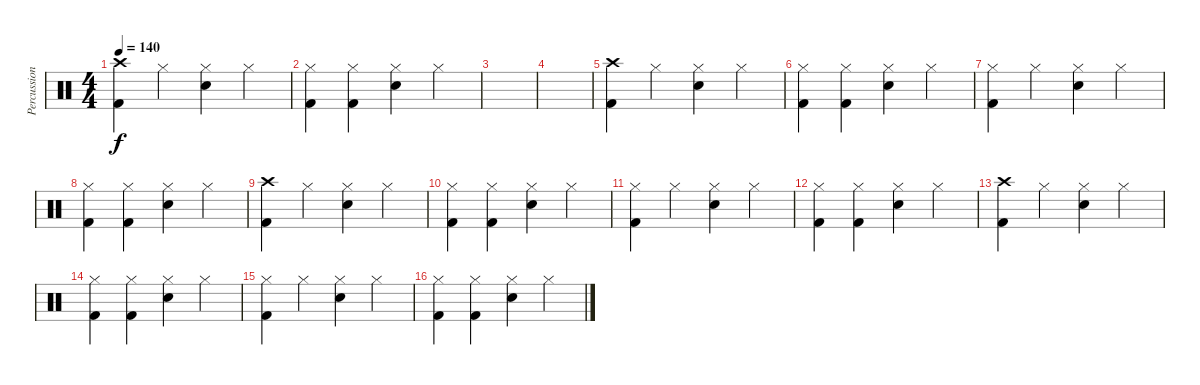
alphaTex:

\track ("Percussion" "Percussion") {instrument percussion}
\staff {score}
\articulation defaults
\ts (4 4)
\tempo 140
\clef neutral
\ks c
("Crash high (hit)" "Kick (hit) 2").4{dy f} "Hi-Hat (closed)".4 ("Hi-Hat (closed)" "Electric Snare (hit)").4 "Hi-Hat (closed)".4 |
("Hi-Hat (closed)" "Kick (hit) 2").4 ("Hi-Hat (closed)" "Kick (hit) 2").4 ("Hi-Hat (closed)" "Electric Snare (hit)").4 "Hi-Hat (closed)".4 |
|
|
("Crash high (hit)" "Kick (hit) 2").4 "Hi-Hat (closed)".4 ("Hi-Hat (closed)" "Electric Snare (hit)").4 "Hi-Hat (closed)".4 |
("Hi-Hat (closed)" "Kick (hit) 2").4 ("Hi-Hat (closed)" "Kick (hit) 2").4 ("Hi-Hat (closed)" "Electric Snare (hit)").4 "Hi-Hat (closed)".4 |
("Hi-Hat (closed)" "Kick (hit) 2").4 "Hi-Hat (closed)".4 ("Hi-Hat (closed)" "Electric Snare (hit)").4 "Hi-Hat (closed)".4 |
("Hi-Hat (closed)" "Kick (hit) 2").4 ("Hi-Hat (closed)" "Kick (hit) 2").4 ("Hi-Hat (closed)" "Electric Snare (hit)").4 "Hi-Hat (closed)".4 |
("Crash high (hit)" "Kick (hit) 2").4 "Hi-Hat (closed)".4 ("Hi-Hat (closed)" "Electric Snare (hit)").4 "Hi-Hat (closed)".4 |
("Hi-Hat (closed)" "Kick (hit) 2").4 ("Hi-Hat (closed)" "Kick (hit) 2").4 ("Hi-Hat (closed)" "Electric Snare (hit)").4 "Hi-Hat (closed)".4 |
("Hi-Hat (closed)" "Kick (hit) 2").4 "Hi-Hat (closed)".4 ("Hi-Hat (closed)" "Electric Snare (hit)").4 "Hi-Hat (closed)".4 |
("Hi-Hat (closed)" "Kick (hit) 2").4 ("Hi-Hat (closed)" "Kick (hit) 2").4 ("Hi-Hat (closed)" "Electric Snare (hit)").4 "Hi-Hat (closed)".4 |
("Crash high (hit)" "Kick (hit) 2").4 "Hi-Hat (closed)".4 ("Hi-Hat (closed)" "Electric Snare (hit)").4 "Hi-Hat (closed)".4 |
("Hi-Hat (closed)" "Kick (hit) 2").4 ("Hi-Hat (closed)" "Kick (hit) 2").4 ("Hi-Hat (closed)" "Electric Snare (hit)").4 "Hi-Hat (closed)".4 |
("Hi-Hat (closed)" "Kick (hit) 2").4 "Hi-Hat (closed)".4 ("Hi-Hat (closed)" "Electric Snare (hit)").4 "Hi-Hat (closed)".4 |
("Hi-Hat (closed)" "Kick (hit) 2").4 ("Hi-Hat (closed)" "Kick (hit) 2").4 ("Hi-Hat (closed)" "Electric Snare (hit)").4 "Hi-Hat (closed)".4
